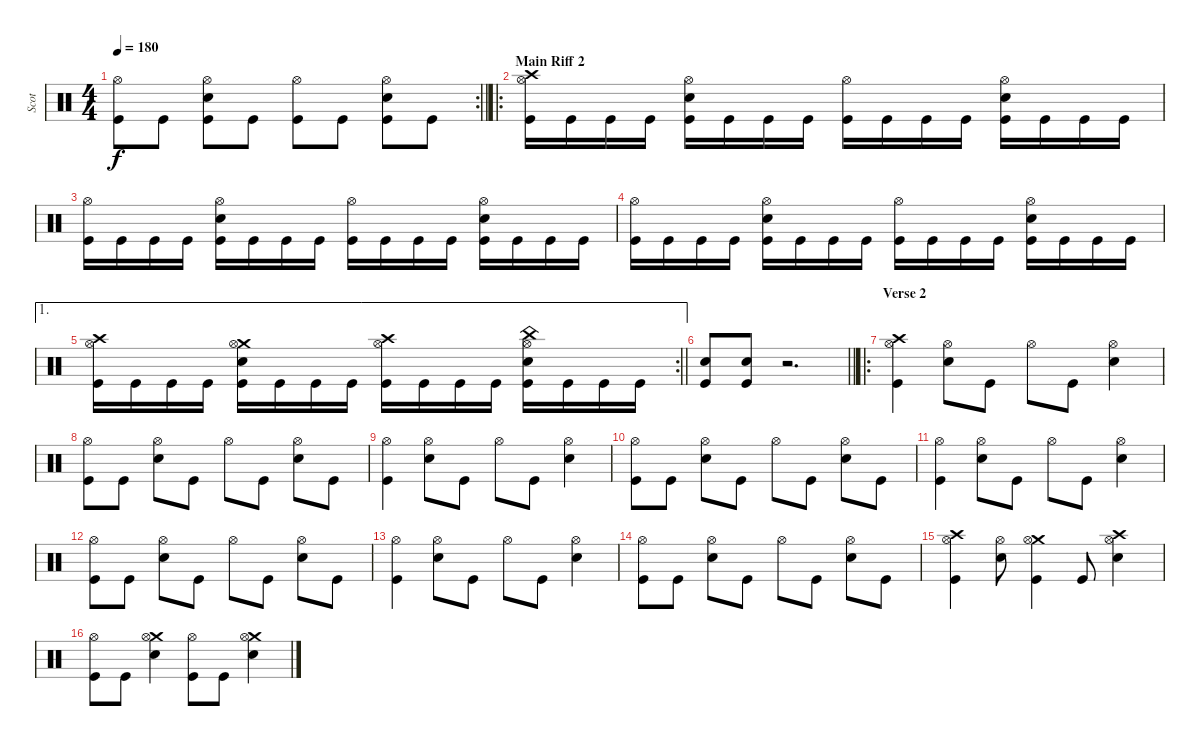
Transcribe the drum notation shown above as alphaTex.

\track ("Scot" "Scot") {instrument percussion}
\staff {score}
\articulation defaults
\rc 2
\ts (4 4)
\tempo 180
\clef neutral
\barLineRight lightlight
\ks c
("Hi-Hat (open)" "Kick (hit)").8{dy f} "Kick (hit)".8 ("Electric Snare (hit)" "Hi-Hat (open)" "Kick (hit)").8 "Kick (hit)".8 ("Hi-Hat (open)" "Kick (hit)").8 "Kick (hit)".8 ("Electric Snare (hit)" "Hi-Hat (open)" "Kick (hit)").8 "Kick (hit)".8 |
\ro
\section ("" "Main Riff 2")
("Crash high (hit)" "Hi-Hat (open)" "Kick (hit)").16 "Kick (hit)".16 "Kick (hit)".16 "Kick (hit)".16 ("Electric Snare (hit)" "Hi-Hat (open)" "Kick (hit)").16 "Kick (hit)".16 "Kick (hit)".16 "Kick (hit)".16 ("Hi-Hat (open)" "Kick (hit)").16 "Kick (hit)".16 "Kick (hit)".16 "Kick (hit)".16 ("Electric Snare (hit)" "Hi-Hat (open)" "Kick (hit)").16 "Kick (hit)".16 "Kick (hit)".16 "Kick (hit)".16 |
("Hi-Hat (open)" "Kick (hit)").16 "Kick (hit)".16 "Kick (hit)".16 "Kick (hit)".16 ("Electric Snare (hit)" "Hi-Hat (open)" "Kick (hit)").16 "Kick (hit)".16 "Kick (hit)".16 "Kick (hit)".16 ("Hi-Hat (open)" "Kick (hit)").16 "Kick (hit)".16 "Kick (hit)".16 "Kick (hit)".16 ("Electric Snare (hit)" "Hi-Hat (open)" "Kick (hit)").16 "Kick (hit)".16 "Kick (hit)".16 "Kick (hit)".16 |
("Hi-Hat (open)" "Kick (hit)").16 "Kick (hit)".16 "Kick (hit)".16 "Kick (hit)".16 ("Electric Snare (hit)" "Hi-Hat (open)" "Kick (hit)").16 "Kick (hit)".16 "Kick (hit)".16 "Kick (hit)".16 ("Hi-Hat (open)" "Kick (hit)").16 "Kick (hit)".16 "Kick (hit)".16 "Kick (hit)".16 ("Electric Snare (hit)" "Hi-Hat (open)" "Kick (hit)").16 "Kick (hit)".16 "Kick (hit)".16 "Kick (hit)".16 |
\ae 1
\rc 2
\barLineRight lightlight
("Crash high (hit)" "Hi-Hat (open)" "Kick (hit)").16 "Kick (hit)".16 "Kick (hit)".16 "Kick (hit)".16 ("Crash medium (hit)" "Electric Snare (hit)" "Hi-Hat (open)" "Kick (hit)").16 "Kick (hit)".16 "Kick (hit)".16 "Kick (hit)".16 ("Crash high (hit)" "Hi-Hat (open)" "Kick (hit)").16 "Kick (hit)".16 "Kick (hit)".16 "Kick (hit)".16 ("China (hit)" "Electric Snare (hit)" "Hi-Hat (open)" "Kick (hit)").16 "Kick (hit)".16 "Kick (hit)".16 "Kick (hit)".16 |
\barLineRight lightlight
("Electric Snare (hit)" "Kick (hit)").8 ("Electric Snare (hit)" "Kick (hit)").8 r.2{d} |
\ro
\section ("" "Verse 2")
("Crash high (hit)" "Hi-Hat (open)" "Kick (hit)").4 ("Electric Snare (hit)" "Hi-Hat (open)").8 "Kick (hit)".8 "Hi-Hat (open)".8 "Kick (hit)".8 ("Electric Snare (hit)" "Hi-Hat (open)").4 |
("Hi-Hat (open)" "Kick (hit)").8 "Kick (hit)".8 ("Electric Snare (hit)" "Hi-Hat (open)").8 "Kick (hit)".8 "Hi-Hat (open)".8 "Kick (hit)".8 ("Electric Snare (hit)" "Hi-Hat (open)").8 "Kick (hit)".8 |
("Hi-Hat (open)" "Kick (hit)").4 ("Electric Snare (hit)" "Hi-Hat (open)").8 "Kick (hit)".8 "Hi-Hat (open)".8 "Kick (hit)".8 ("Electric Snare (hit)" "Hi-Hat (open)").4 |
("Hi-Hat (open)" "Kick (hit)").8 "Kick (hit)".8 ("Electric Snare (hit)" "Hi-Hat (open)").8 "Kick (hit)".8 "Hi-Hat (open)".8 "Kick (hit)".8 ("Electric Snare (hit)" "Hi-Hat (open)").8 "Kick (hit)".8 |
("Hi-Hat (open)" "Kick (hit)").4 ("Electric Snare (hit)" "Hi-Hat (open)").8 "Kick (hit)".8 "Hi-Hat (open)".8 "Kick (hit)".8 ("Electric Snare (hit)" "Hi-Hat (open)").4 |
("Hi-Hat (open)" "Kick (hit)").8 "Kick (hit)".8 ("Electric Snare (hit)" "Hi-Hat (open)").8 "Kick (hit)".8 "Hi-Hat (open)".8 "Kick (hit)".8 ("Electric Snare (hit)" "Hi-Hat (open)").8 "Kick (hit)".8 |
("Hi-Hat (open)" "Kick (hit)").4 ("Electric Snare (hit)" "Hi-Hat (open)").8 "Kick (hit)".8 "Hi-Hat (open)".8 "Kick (hit)".8 ("Electric Snare (hit)" "Hi-Hat (open)").4 |
("Hi-Hat (open)" "Kick (hit)").8 "Kick (hit)".8 ("Electric Snare (hit)" "Hi-Hat (open)").8 "Kick (hit)".8 "Hi-Hat (open)".8 "Kick (hit)".8 ("Electric Snare (hit)" "Hi-Hat (open)").8 "Kick (hit)".8 |
("Crash high (hit)" "Hi-Hat (open)" "Kick (hit)").4 ("Electric Snare (hit)" "Hi-Hat (open)").8 ("Crash medium (hit)" "Hi-Hat (open)" "Kick (hit)").4 "Kick (hit)".8 ("Crash high (hit)" "Electric Snare (hit)" "Hi-Hat (open)").4 |
("Hi-Hat (open)" "Kick (hit)").8 "Kick (hit)".8 ("Crash medium (hit)" "Electric Snare (hit)" "Hi-Hat (open)").4 ("Hi-Hat (open)" "Kick (hit)").8 "Kick (hit)".8 ("Crash medium (hit)" "Electric Snare (hit)" "Hi-Hat (open)").4
